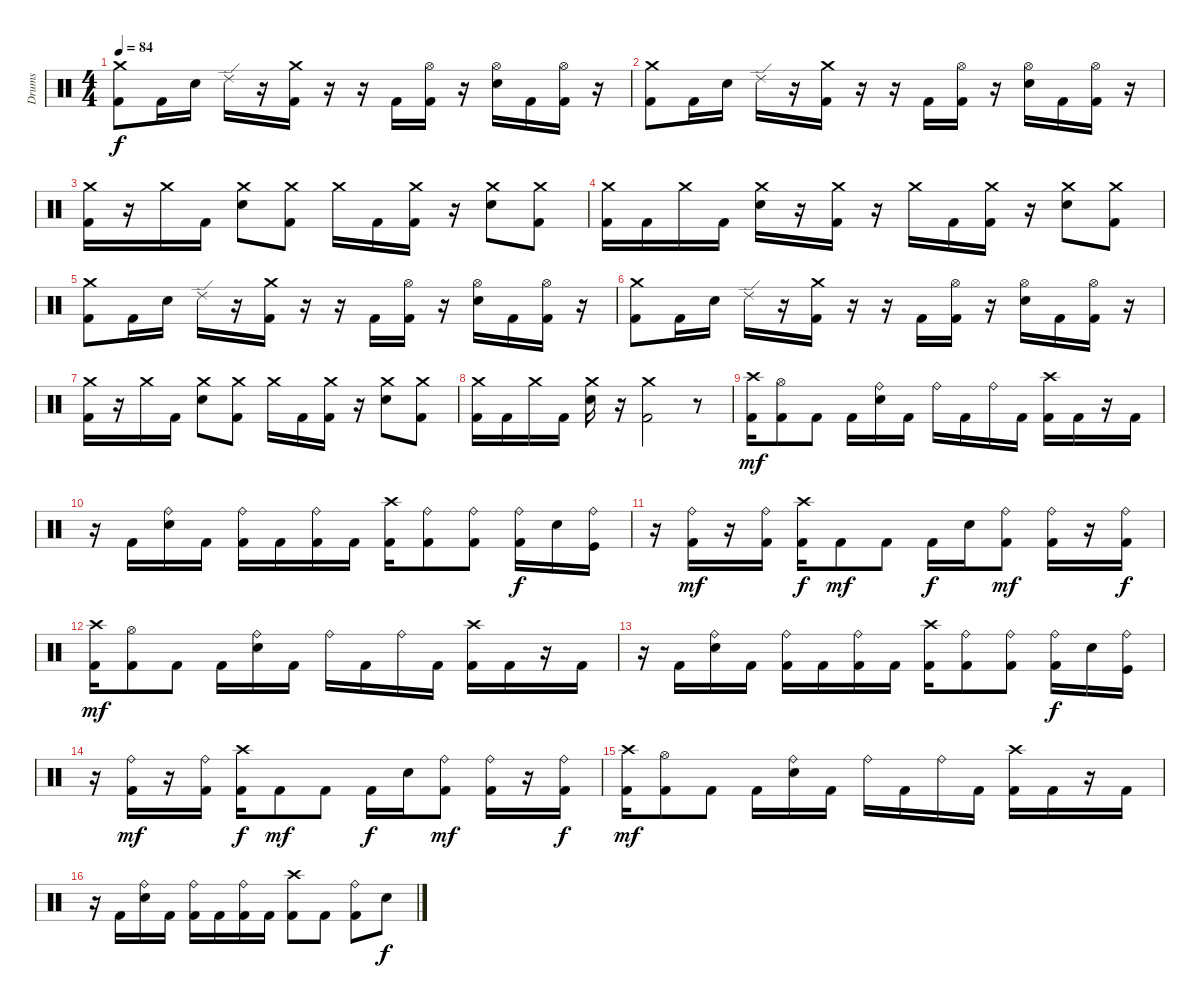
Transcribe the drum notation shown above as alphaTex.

\track ("Drums" "Drums") {instrument percussion}
\staff {score}
\articulation defaults
\ts (4 4)
\tempo 84
\clef neutral
\ks c
("Crash medium (hit)" "Kick (hit) 2").8{dy f} "Kick (hit) 2".16 "Electric Snare (hit)".16 "Ride (edge) 2".16 r.16 ("Crash medium (hit)" "Kick (hit) 2").16 r.16 r.16 "Kick (hit) 2".16 ("Hi-Hat (open)" "Kick (hit) 2").16 r.16 ("Hi-Hat (open)" "Electric Snare (hit)").16 "Kick (hit) 2".16 ("Hi-Hat (open)" "Kick (hit) 2").16 r.16 |
("Crash medium (hit)" "Kick (hit) 2").8 "Kick (hit) 2".16 "Electric Snare (hit)".16 "Ride (edge) 2".16 r.16 ("Crash medium (hit)" "Kick (hit) 2").16 r.16 r.16 "Kick (hit) 2".16 ("Hi-Hat (open)" "Kick (hit) 2").16 r.16 ("Hi-Hat (open)" "Electric Snare (hit)").16 "Kick (hit) 2".16 ("Hi-Hat (open)" "Kick (hit) 2").16 r.16 |
("Crash medium (hit)" "Kick (hit) 2").16 r.16 "Crash medium (hit)".16 "Kick (hit) 2".16 ("Crash medium (hit)" "Electric Snare (hit)").8 ("Crash medium (hit)" "Kick (hit) 2").8 "Crash medium (hit)".16 "Kick (hit) 2".16 ("Crash medium (hit)" "Kick (hit) 2").16 r.16 ("Crash medium (hit)" "Electric Snare (hit)").8 ("Crash medium (hit)" "Kick (hit) 2").8 |
("Crash medium (hit)" "Kick (hit) 2").16 "Kick (hit) 2".16 "Crash medium (hit)".16 "Kick (hit) 2".16 ("Crash medium (hit)" "Electric Snare (hit)").16 r.16 ("Crash medium (hit)" "Kick (hit) 2").16 r.16 "Crash medium (hit)".16 "Kick (hit) 2".16 ("Crash medium (hit)" "Kick (hit) 2").16 r.16 ("Crash medium (hit)" "Electric Snare (hit)").8 ("Crash medium (hit)" "Kick (hit) 2").8 |
("Crash medium (hit)" "Kick (hit) 2").8 "Kick (hit) 2".16 "Electric Snare (hit)".16 "Ride (edge) 2".16 r.16 ("Crash medium (hit)" "Kick (hit) 2").16 r.16 r.16 "Kick (hit) 2".16 ("Hi-Hat (open)" "Kick (hit) 2").16 r.16 ("Hi-Hat (open)" "Electric Snare (hit)").16 "Kick (hit) 2".16 ("Hi-Hat (open)" "Kick (hit) 2").16 r.16 |
("Crash medium (hit)" "Kick (hit) 2").8 "Kick (hit) 2".16 "Electric Snare (hit)".16 "Ride (edge) 2".16 r.16 ("Crash medium (hit)" "Kick (hit) 2").16 r.16 r.16 "Kick (hit) 2".16 ("Hi-Hat (open)" "Kick (hit) 2").16 r.16 ("Hi-Hat (open)" "Electric Snare (hit)").16 "Kick (hit) 2".16 ("Hi-Hat (open)" "Kick (hit) 2").16 r.16 |
("Crash medium (hit)" "Kick (hit) 2").16 r.16 "Crash medium (hit)".16 "Kick (hit) 2".16 ("Crash medium (hit)" "Electric Snare (hit)").8 ("Crash medium (hit)" "Kick (hit) 2").8 "Crash medium (hit)".16 "Kick (hit) 2".16 ("Crash medium (hit)" "Kick (hit) 2").16 r.16 ("Crash medium (hit)" "Electric Snare (hit)").8 ("Crash medium (hit)" "Kick (hit) 2").8 |
("Crash medium (hit)" "Kick (hit) 2").16 "Kick (hit) 2".16 "Crash medium (hit)".16 "Kick (hit) 2".16 ("Crash medium (hit)" "Electric Snare (hit)").16 r.16 ("Crash medium (hit)" "Kick (hit) 2").2 r.8 |
("Crash high (hit)" "Kick (hit) 2").16{dy mf} ("Hi-Hat (open)" "Kick (hit) 2").8 "Kick (hit) 2".8 "Kick (hit) 2".16 ("Ride (bell)" "Electric Snare (hit)").16 "Kick (hit) 2".16 "Ride (bell)".16 "Kick (hit) 2".16 "Ride (bell)".16 "Kick (hit) 2".16 ("Crash high (hit)" "Kick (hit) 2").16 "Kick (hit) 2".16 r.16 "Kick (hit) 2".16 |
r.16 "Kick (hit) 2".16 ("Ride (bell)" "Electric Snare (hit)").16 "Kick (hit) 2".16 ("Ride (bell)" "Kick (hit) 2").16 "Kick (hit) 2".16 ("Ride (bell)" "Kick (hit) 2").16 "Kick (hit) 2".16 ("Crash high (hit)" "Kick (hit) 2").16 ("Ride (bell)" "Kick (hit) 2").8 ("Ride (bell)" "Kick (hit) 2").8 ("Ride (bell)" "Kick (hit) 2").16{dy f} "Electric Snare (hit)".16 ("Ride (bell)" "Kick (hit)").16 |
r.16 ("Ride (bell)" "Kick (hit) 2").16{dy mf} r.16 ("Ride (bell)" "Kick (hit) 2").16 ("Crash high (hit)" "Kick (hit) 2").16{dy f} "Kick (hit) 2".8{dy mf} "Kick (hit) 2".8 "Kick (hit) 2".16{dy f} "Electric Snare (hit)".16 ("Ride (bell)" "Kick (hit) 2").8{dy mf} ("Ride (bell)" "Kick (hit) 2").16 r.16 ("Ride (bell)" "Kick (hit) 2").16{dy f} |
("Crash high (hit)" "Kick (hit) 2").16{dy mf} ("Hi-Hat (open)" "Kick (hit) 2").8 "Kick (hit) 2".8 "Kick (hit) 2".16 ("Ride (bell)" "Electric Snare (hit)").16 "Kick (hit) 2".16 "Ride (bell)".16 "Kick (hit) 2".16 "Ride (bell)".16 "Kick (hit) 2".16 ("Crash high (hit)" "Kick (hit) 2").16 "Kick (hit) 2".16 r.16 "Kick (hit) 2".16 |
r.16 "Kick (hit) 2".16 ("Ride (bell)" "Electric Snare (hit)").16 "Kick (hit) 2".16 ("Ride (bell)" "Kick (hit) 2").16 "Kick (hit) 2".16 ("Ride (bell)" "Kick (hit) 2").16 "Kick (hit) 2".16 ("Crash high (hit)" "Kick (hit) 2").16 ("Ride (bell)" "Kick (hit) 2").8 ("Ride (bell)" "Kick (hit) 2").8 ("Ride (bell)" "Kick (hit) 2").16{dy f} "Electric Snare (hit)".16 ("Ride (bell)" "Kick (hit)").16 |
r.16 ("Ride (bell)" "Kick (hit) 2").16{dy mf} r.16 ("Ride (bell)" "Kick (hit) 2").16 ("Crash high (hit)" "Kick (hit) 2").16{dy f} "Kick (hit) 2".8{dy mf} "Kick (hit) 2".8 "Kick (hit) 2".16{dy f} "Electric Snare (hit)".16 ("Ride (bell)" "Kick (hit) 2").8{dy mf} ("Ride (bell)" "Kick (hit) 2").16 r.16 ("Ride (bell)" "Kick (hit) 2").16{dy f} |
("Crash high (hit)" "Kick (hit) 2").16{dy mf} ("Hi-Hat (open)" "Kick (hit) 2").8 "Kick (hit) 2".8 "Kick (hit) 2".16 ("Ride (bell)" "Electric Snare (hit)").16 "Kick (hit) 2".16 "Ride (bell)".16 "Kick (hit) 2".16 "Ride (bell)".16 "Kick (hit) 2".16 ("Crash high (hit)" "Kick (hit) 2").16 "Kick (hit) 2".16 r.16 "Kick (hit) 2".16 |
r.16 "Kick (hit) 2".16 ("Ride (bell)" "Electric Snare (hit)").16 "Kick (hit) 2".16 ("Ride (bell)" "Kick (hit) 2").16 "Kick (hit) 2".16 ("Ride (bell)" "Kick (hit) 2").16 "Kick (hit) 2".16 ("Crash high (hit)" "Kick (hit) 2").8 "Kick (hit) 2".8 ("Ride (bell)" "Kick (hit) 2").8 "Electric Snare (hit)".8{dy f}
